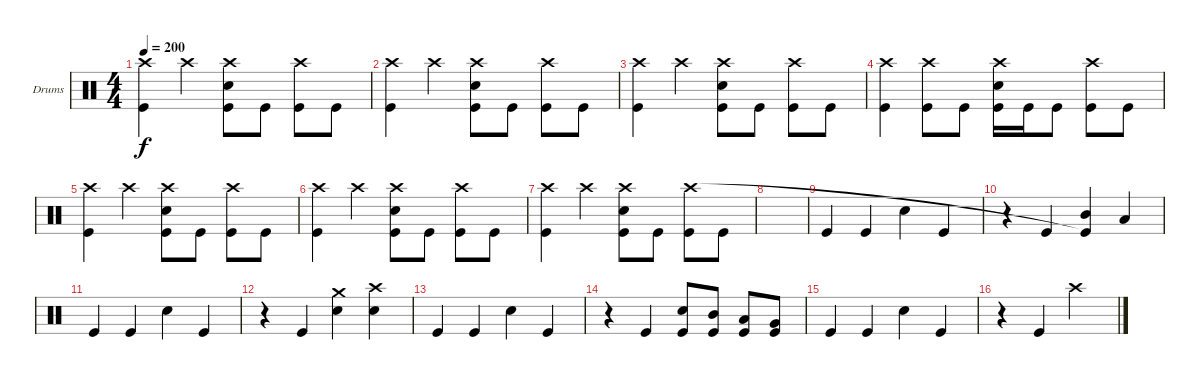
\bracketExtendMode groupsimilarinstruments
\firstSystemTrackNameOrientation horizontal
\otherSystemsTrackNameOrientation horizontal
\track ("Canadien" "Drums") {instrument percussion}
\staff {score}
\articulation defaults
\ts (4 4)
\tempo 200
\clef neutral
\ks c
("Crash high (hit)" "Kick (hit)").4{dy f} "Crash high (hit)".4 ("Snare (hit) 2" "Kick (hit)" "Crash high (hit)").8 "Kick (hit)".8 ("Kick (hit)" "Crash high (hit)").8 "Kick (hit)".8 |
("Crash high (hit)" "Kick (hit)").4 "Crash high (hit)".4 ("Snare (hit) 2" "Kick (hit)" "Crash high (hit)").8 "Kick (hit)".8 ("Kick (hit)" "Crash high (hit)").8 "Kick (hit)".8 |
("Crash high (hit)" "Kick (hit)").4 "Crash high (hit)".4 ("Snare (hit) 2" "Kick (hit)" "Crash high (hit)").8 "Kick (hit)".8 ("Kick (hit)" "Crash high (hit)").8 "Kick (hit)".8 |
("Crash high (hit)" "Kick (hit)").4 ("Crash high (hit)" "Kick (hit)").8 "Kick (hit)".8 ("Crash high (hit)" "Snare (hit) 2" "Kick (hit)").16 "Kick (hit)".16 "Kick (hit)".8 ("Crash high (hit)" "Kick (hit)").8 "Kick (hit)".8 |
("Crash high (hit)" "Kick (hit)").4 "Crash high (hit)".4 ("Snare (hit) 2" "Kick (hit)" "Crash high (hit)").8 "Kick (hit)".8 ("Kick (hit)" "Crash high (hit)").8 "Kick (hit)".8 |
("Crash high (hit)" "Kick (hit)").4 "Crash high (hit)".4 ("Snare (hit) 2" "Kick (hit)" "Crash high (hit)").8 "Kick (hit)".8 ("Kick (hit)" "Crash high (hit)").8 "Kick (hit)".8 |
("Crash high (hit)" "Kick (hit)").4 "Crash high (hit)".4 ("Snare (hit) 2" "Kick (hit)" "Crash high (hit)").8 "Kick (hit)".8 ("Kick (hit)" "Crash high (hit)").8 "Kick (hit)".8 |
|
"Kick (hit)".4 "Kick (hit)".4 "Snare (hit) 2".4 "Kick (hit)".4 |
r.4 "Kick (hit)".4 ("Mid Tom (hit)" "Kick (hit)"{t}).4 "Low Tom (hit)".4 |
"Kick (hit)".4 "Kick (hit)".4 "Snare (hit) 2".4 "Kick (hit)".4 |
r.4 "Kick (hit)".4 ("Crash medium (hit)" "Snare (hit) 2").4 ("Crash high (hit)" "Snare (hit) 2").4 |
"Kick (hit)".4 "Kick (hit)".4 "Snare (hit) 2".4 "Kick (hit)".4 |
r.4 "Kick (hit)".4 ("Snare (hit) 2" "Kick (hit)").8 ("Mid Tom (hit)" "Kick (hit)").8 ("Low Tom (hit)" "Kick (hit)").8 ("Very Low Tom (hit)" "Kick (hit)").8 |
"Kick (hit)".4 "Kick (hit)".4 "Snare (hit) 2".4 "Kick (hit)".4 |
r.4 "Kick (hit)".4 "Crash high (hit)".2
